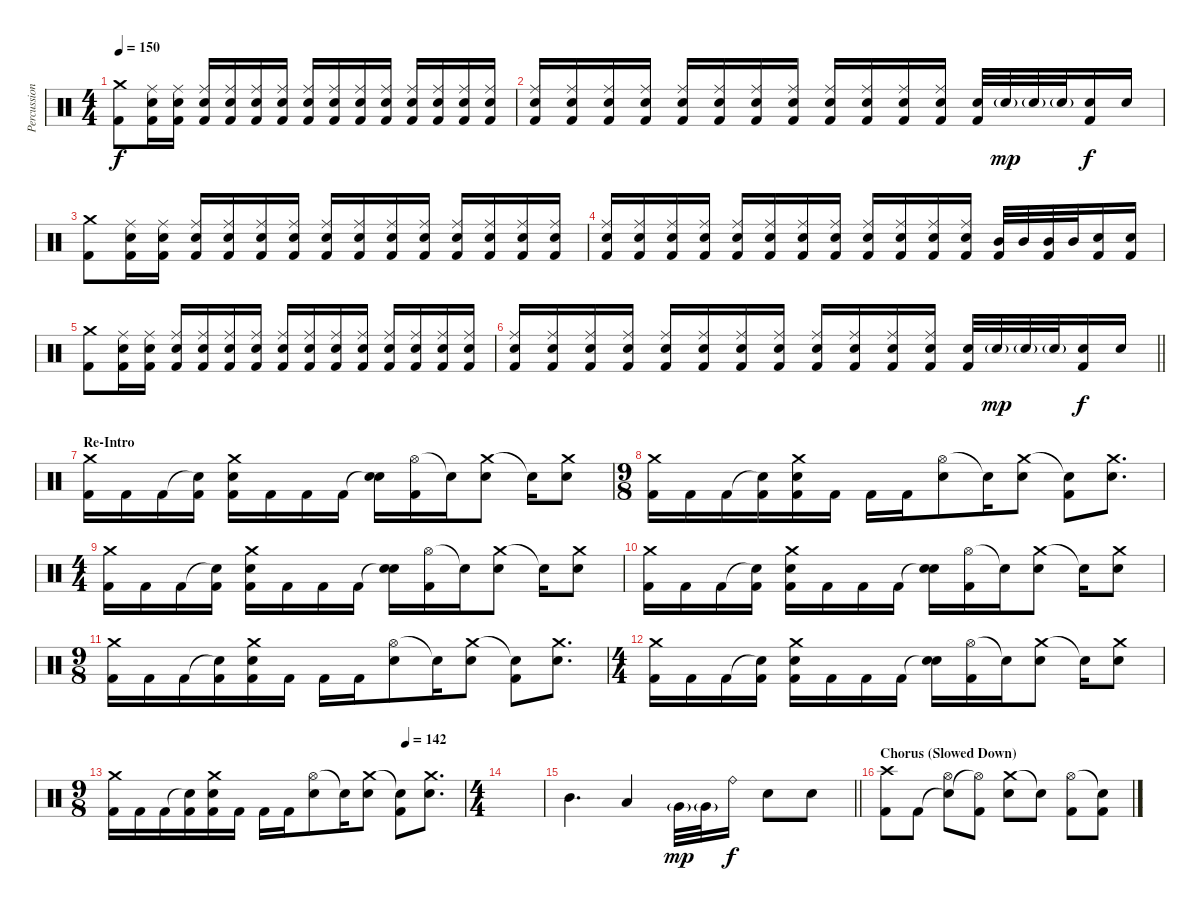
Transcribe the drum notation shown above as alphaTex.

\track ("Percussion" "Percussion") {instrument percussion}
\staff {score}
\articulation defaults
\ts (4 4)
\tempo 150
\clef neutral
\ks c
("Crash medium (hit)" "Kick (hit) 2").8{dy f} ("Ride (middle)" "Electric Snare (hit)" "Kick (hit) 2").16 ("Ride (middle)" "Electric Snare (hit)" "Kick (hit) 2").16 ("Ride (middle)" "Electric Snare (hit)" "Kick (hit) 2").16 ("Ride (middle)" "Electric Snare (hit)" "Kick (hit) 2").16 ("Ride (middle)" "Electric Snare (hit)" "Kick (hit) 2").16 ("Ride (middle)" "Electric Snare (hit)" "Kick (hit) 2").16 ("Ride (middle)" "Electric Snare (hit)" "Kick (hit) 2").16 ("Ride (middle)" "Electric Snare (hit)" "Kick (hit) 2").16 ("Ride (middle)" "Electric Snare (hit)" "Kick (hit) 2").16 ("Ride (middle)" "Electric Snare (hit)" "Kick (hit) 2").16 ("Ride (middle)" "Electric Snare (hit)" "Kick (hit) 2").16 ("Ride (middle)" "Electric Snare (hit)" "Kick (hit) 2").16 ("Ride (middle)" "Electric Snare (hit)" "Kick (hit) 2").16 ("Ride (middle)" "Electric Snare (hit)" "Kick (hit) 2").16 |
("Ride (middle)" "Electric Snare (hit)" "Kick (hit) 2").16 ("Ride (middle)" "Electric Snare (hit)" "Kick (hit) 2").16 ("Ride (middle)" "Electric Snare (hit)" "Kick (hit) 2").16 ("Ride (middle)" "Electric Snare (hit)" "Kick (hit) 2").16 ("Ride (middle)" "Electric Snare (hit)" "Kick (hit) 2").16 ("Ride (middle)" "Electric Snare (hit)" "Kick (hit) 2").16 ("Ride (middle)" "Electric Snare (hit)" "Kick (hit) 2").16 ("Ride (middle)" "Electric Snare (hit)" "Kick (hit) 2").16 ("Ride (middle)" "Electric Snare (hit)" "Kick (hit) 2").16 ("Ride (middle)" "Electric Snare (hit)" "Kick (hit) 2").16 ("Ride (middle)" "Electric Snare (hit)" "Kick (hit) 2").16 ("Ride (middle)" "Electric Snare (hit)" "Kick (hit) 2").16 ("Electric Snare (hit)" "Kick (hit) 2").32 "Electric Snare (hit)"{g}.32{dy mp} "Electric Snare (hit)"{g}.32 "Electric Snare (hit)"{g}.32 ("Electric Snare (hit)" "Kick (hit) 2").16{dy f} "Electric Snare (hit)".16 |
("Crash medium (hit)" "Kick (hit) 2").8 ("Ride (middle)" "Electric Snare (hit)" "Kick (hit) 2").16 ("Ride (middle)" "Electric Snare (hit)" "Kick (hit) 2").16 ("Ride (middle)" "Electric Snare (hit)" "Kick (hit) 2").16 ("Ride (middle)" "Electric Snare (hit)" "Kick (hit) 2").16 ("Ride (middle)" "Electric Snare (hit)" "Kick (hit) 2").16 ("Ride (middle)" "Electric Snare (hit)" "Kick (hit) 2").16 ("Ride (middle)" "Electric Snare (hit)" "Kick (hit) 2").16 ("Ride (middle)" "Electric Snare (hit)" "Kick (hit) 2").16 ("Ride (middle)" "Electric Snare (hit)" "Kick (hit) 2").16 ("Ride (middle)" "Electric Snare (hit)" "Kick (hit) 2").16 ("Ride (middle)" "Electric Snare (hit)" "Kick (hit) 2").16 ("Ride (middle)" "Electric Snare (hit)" "Kick (hit) 2").16 ("Ride (middle)" "Electric Snare (hit)" "Kick (hit) 2").16 ("Ride (middle)" "Electric Snare (hit)" "Kick (hit) 2").16 |
("Ride (middle)" "Electric Snare (hit)" "Kick (hit) 2").16 ("Ride (middle)" "Electric Snare (hit)" "Kick (hit) 2").16 ("Ride (middle)" "Electric Snare (hit)" "Kick (hit) 2").16 ("Ride (middle)" "Electric Snare (hit)" "Kick (hit) 2").16 ("Ride (middle)" "Electric Snare (hit)" "Kick (hit) 2").16 ("Ride (middle)" "Electric Snare (hit)" "Kick (hit) 2").16 ("Ride (middle)" "Electric Snare (hit)" "Kick (hit) 2").16 ("Ride (middle)" "Electric Snare (hit)" "Kick (hit) 2").16 ("Ride (middle)" "Electric Snare (hit)" "Kick (hit) 2").16 ("Ride (middle)" "Electric Snare (hit)" "Kick (hit) 2").16 ("Ride (middle)" "Electric Snare (hit)" "Kick (hit) 2").16 ("Ride (middle)" "Electric Snare (hit)" "Kick (hit) 2").16 ("Mid Tom (hit)" "Kick (hit) 2").32 "Mid Tom (hit)".32 ("Mid Tom (hit)" "Kick (hit) 2").32 "Mid Tom (hit)".32 ("Electric Snare (hit)" "Kick (hit) 2").16 ("Electric Snare (hit)" "Kick (hit) 2").16 |
("Crash medium (hit)" "Kick (hit) 2").8 ("Ride (middle)" "Electric Snare (hit)" "Kick (hit) 2").16 ("Ride (middle)" "Electric Snare (hit)" "Kick (hit) 2").16 ("Ride (middle)" "Electric Snare (hit)" "Kick (hit) 2").16 ("Ride (middle)" "Electric Snare (hit)" "Kick (hit) 2").16 ("Ride (middle)" "Electric Snare (hit)" "Kick (hit) 2").16 ("Ride (middle)" "Electric Snare (hit)" "Kick (hit) 2").16 ("Ride (middle)" "Electric Snare (hit)" "Kick (hit) 2").16 ("Ride (middle)" "Electric Snare (hit)" "Kick (hit) 2").16 ("Ride (middle)" "Electric Snare (hit)" "Kick (hit) 2").16 ("Ride (middle)" "Electric Snare (hit)" "Kick (hit) 2").16 ("Ride (middle)" "Electric Snare (hit)" "Kick (hit) 2").16 ("Ride (middle)" "Electric Snare (hit)" "Kick (hit) 2").16 ("Ride (middle)" "Electric Snare (hit)" "Kick (hit) 2").16 ("Ride (middle)" "Electric Snare (hit)" "Kick (hit) 2").16 |
\barLineRight lightlight
("Ride (middle)" "Electric Snare (hit)" "Kick (hit) 2").16 ("Ride (middle)" "Electric Snare (hit)" "Kick (hit) 2").16 ("Ride (middle)" "Electric Snare (hit)" "Kick (hit) 2").16 ("Ride (middle)" "Electric Snare (hit)" "Kick (hit) 2").16 ("Ride (middle)" "Electric Snare (hit)" "Kick (hit) 2").16 ("Ride (middle)" "Electric Snare (hit)" "Kick (hit) 2").16 ("Ride (middle)" "Electric Snare (hit)" "Kick (hit) 2").16 ("Ride (middle)" "Electric Snare (hit)" "Kick (hit) 2").16 ("Ride (middle)" "Electric Snare (hit)" "Kick (hit) 2").16 ("Ride (middle)" "Electric Snare (hit)" "Kick (hit) 2").16 ("Ride (middle)" "Electric Snare (hit)" "Kick (hit) 2").16 ("Ride (middle)" "Electric Snare (hit)" "Kick (hit) 2").16 ("Electric Snare (hit)" "Kick (hit) 2").32 "Electric Snare (hit)"{g}.32{dy mp} "Electric Snare (hit)"{g}.32 "Electric Snare (hit)"{g}.32 ("Electric Snare (hit)" "Kick (hit) 2").16{dy f} "Electric Snare (hit)".16 |
\section ("" "Re-Intro")
("Crash medium (hit)" "Kick (hit) 2").16 "Kick (hit) 2".16 "Kick (hit) 2".16 ("Snare (hit)"{t} "Kick (hit) 2").16 ("Crash medium (hit)" "Electric Snare (hit)" "Kick (hit) 2").16 "Kick (hit) 2".16 "Kick (hit) 2".16 "Kick (hit) 2".16 ("Snare (hit)"{t} "Electric Snare (hit)").16 ("Hi-Hat (open)" "Kick (hit) 2").16 "Snare (hit)"{t}.16 ("Crash medium (hit)" "Electric Snare (hit)").8 "Snare (hit)"{t}.16 ("Crash medium (hit)" "Electric Snare (hit)").8 |
\ts (9 8)
("Crash medium (hit)" "Kick (hit) 2").16 "Kick (hit) 2".16 "Kick (hit) 2".16 ("Snare (hit)"{t} "Kick (hit) 2").16 ("Crash medium (hit)" "Electric Snare (hit)" "Kick (hit) 2").16 "Kick (hit) 2".16 "Kick (hit) 2".16 "Kick (hit) 2".16 ("Hi-Hat (open)" "Electric Snare (hit)").8 "Snare (hit)"{t}.16 ("Crash medium (hit)" "Electric Snare (hit)").8 ("Snare (hit)"{t} "Kick (hit) 2").8 ("Crash medium (hit)" "Electric Snare (hit)").8{d} |
\ts (4 4)
("Crash medium (hit)" "Kick (hit) 2").16 "Kick (hit) 2".16 "Kick (hit) 2".16 ("Snare (hit)"{t} "Kick (hit) 2").16 ("Crash medium (hit)" "Electric Snare (hit)" "Kick (hit) 2").16 "Kick (hit) 2".16 "Kick (hit) 2".16 "Kick (hit) 2".16 ("Snare (hit)"{t} "Electric Snare (hit)").16 ("Hi-Hat (open)" "Kick (hit) 2").16 "Snare (hit)"{t}.16 ("Crash medium (hit)" "Electric Snare (hit)").8 "Snare (hit)"{t}.16 ("Crash medium (hit)" "Electric Snare (hit)").8 |
("Crash medium (hit)" "Kick (hit) 2").16 "Kick (hit) 2".16 "Kick (hit) 2".16 ("Snare (hit)"{t} "Kick (hit) 2").16 ("Crash medium (hit)" "Electric Snare (hit)" "Kick (hit) 2").16 "Kick (hit) 2".16 "Kick (hit) 2".16 "Kick (hit) 2".16 ("Snare (hit)"{t} "Electric Snare (hit)").16 ("Hi-Hat (open)" "Kick (hit) 2").16 "Snare (hit)"{t}.16 ("Crash medium (hit)" "Electric Snare (hit)").8 "Snare (hit)"{t}.16 ("Crash medium (hit)" "Electric Snare (hit)").8 |
\ts (9 8)
("Crash medium (hit)" "Kick (hit) 2").16 "Kick (hit) 2".16 "Kick (hit) 2".16 ("Snare (hit)"{t} "Kick (hit) 2").16 ("Crash medium (hit)" "Electric Snare (hit)" "Kick (hit) 2").16 "Kick (hit) 2".16 "Kick (hit) 2".16 "Kick (hit) 2".16 ("Hi-Hat (open)" "Electric Snare (hit)").8 "Snare (hit)"{t}.16 ("Crash medium (hit)" "Electric Snare (hit)").8 ("Snare (hit)"{t} "Kick (hit) 2").8 ("Crash medium (hit)" "Electric Snare (hit)").8{d} |
\ts (4 4)
("Crash medium (hit)" "Kick (hit) 2").16 "Kick (hit) 2".16 "Kick (hit) 2".16 ("Snare (hit)"{t} "Kick (hit) 2").16 ("Crash medium (hit)" "Electric Snare (hit)" "Kick (hit) 2").16 "Kick (hit) 2".16 "Kick (hit) 2".16 "Kick (hit) 2".16 ("Snare (hit)"{t} "Electric Snare (hit)").16 ("Hi-Hat (open)" "Kick (hit) 2").16 "Snare (hit)"{t}.16 ("Crash medium (hit)" "Electric Snare (hit)").8 "Snare (hit)"{t}.16 ("Crash medium (hit)" "Electric Snare (hit)").8 |
\ts (9 8)
\tempo (142 0.8333333333333334)
("Crash medium (hit)" "Kick (hit) 2").16 "Kick (hit) 2".16 "Kick (hit) 2".16 ("Snare (hit)"{t} "Kick (hit) 2").16 ("Crash medium (hit)" "Electric Snare (hit)" "Kick (hit) 2").16 "Kick (hit) 2".16 "Kick (hit) 2".16 "Kick (hit) 2".16 ("Hi-Hat (open)" "Electric Snare (hit)").8 "Snare (hit)"{t}.16 ("Crash medium (hit)" "Electric Snare (hit)").8 ("Snare (hit)"{t} "Kick (hit) 2").8 ("Crash medium (hit)" "Electric Snare (hit)").8{d} |
\ts (4 4)
|
\barLineRight lightlight "Mid Tom (hit)".4{d} "Low Tom (hit)".4 "Very Low Tom (hit)"{g}.32{dy mp} "Very Low Tom (hit)"{g}.32 "Ride (bell)".16{dy f} "Electric Snare (hit)".8 "Electric Snare (hit)".8
|
\section ("" "Chorus (Slowed Down)")
("Crash high (hit)" "Kick (hit) 2").8 "Kick (hit) 2".8 ("Snare (hit)"{t} "Hi-Hat (open)").8 ("Hi-Hat (open)"{t} "Kick (hit) 2").8 ("Crash medium (hit)" "Electric Snare (hit)").8 "Snare (hit)"{t}.8 ("Hi-Hat (open)" "Kick (hit) 2").8 ("Snare (hit)"{t} "Kick (hit) 2").8
